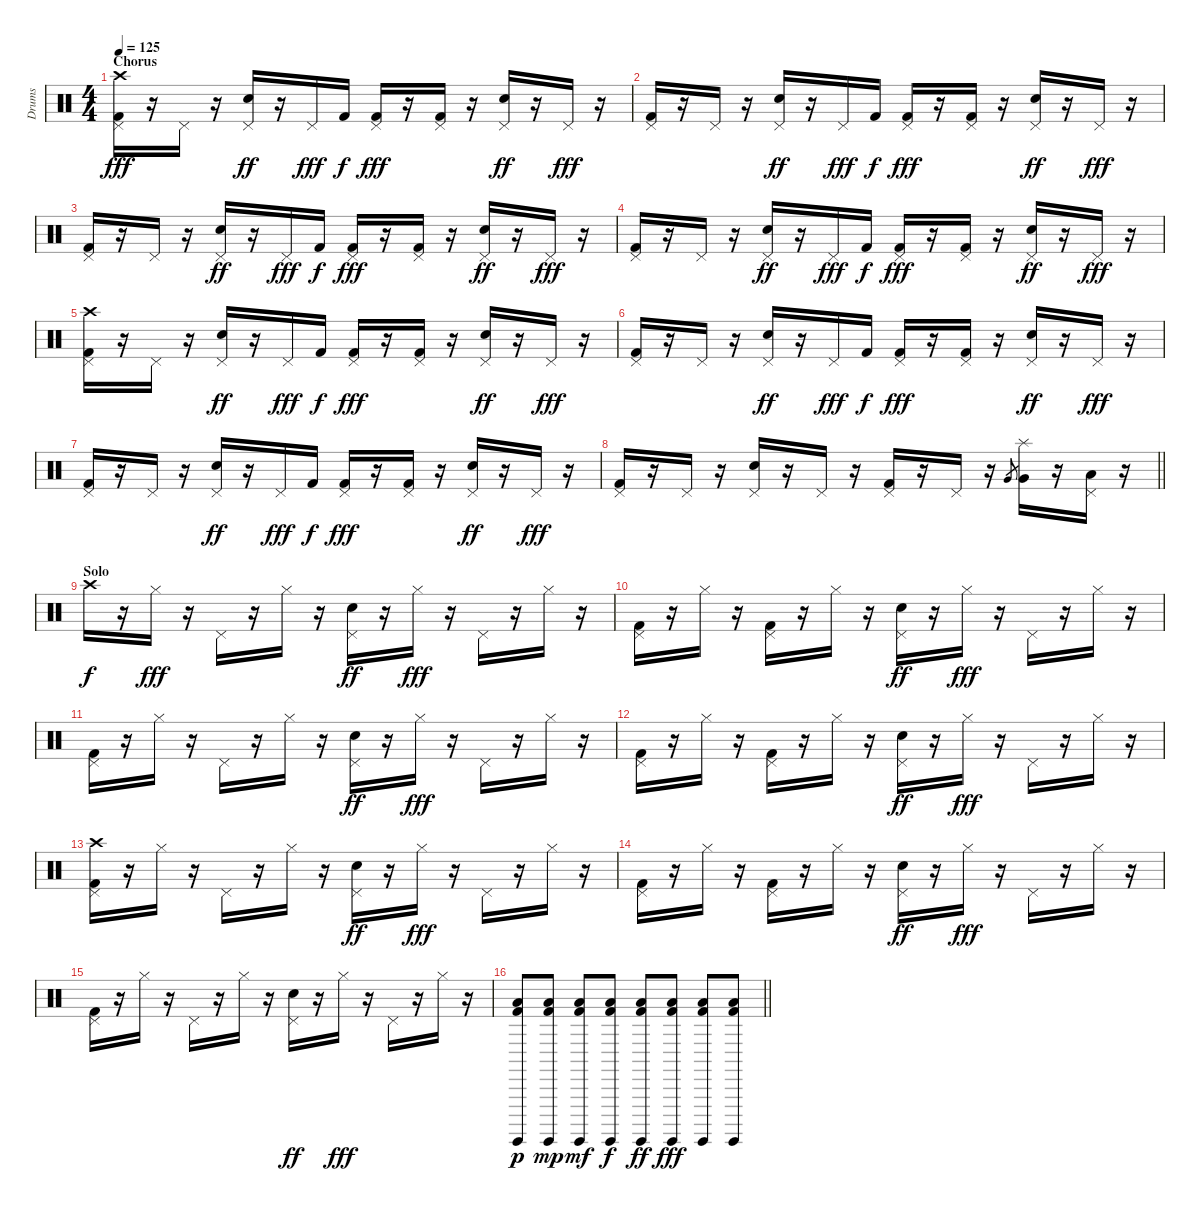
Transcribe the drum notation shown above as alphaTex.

\track ("Drums " "Drums ") {instrument percussion}
\staff {score}
\articulation defaults
\ts (4 4)
\section ("" "Chorus ")
\tempo 125
\clef neutral
\ks c
("Crash high (hit)" "Pedal Hi-Hat (hit)" "Kick (hit) 2").16{dy fff} r.16 "Pedal Hi-Hat (hit)".16 r.16 ("Pedal Hi-Hat (hit)" "Electric Snare (hit)").16{dy ff} r.16 "Pedal Hi-Hat (hit)".16{dy fff} "Kick (hit) 2".16{dy f} ("Pedal Hi-Hat (hit)" "Kick (hit) 2").16{dy fff} r.16 ("Pedal Hi-Hat (hit)" "Kick (hit) 2").16 r.16 ("Pedal Hi-Hat (hit)" "Electric Snare (hit)").16{dy ff} r.16 "Pedal Hi-Hat (hit)".16{dy fff} r.16 |
("Pedal Hi-Hat (hit)" "Kick (hit) 2").16 r.16 "Pedal Hi-Hat (hit)".16 r.16 ("Pedal Hi-Hat (hit)" "Electric Snare (hit)").16{dy ff} r.16 "Pedal Hi-Hat (hit)".16{dy fff} "Kick (hit) 2".16{dy f} ("Pedal Hi-Hat (hit)" "Kick (hit) 2").16{dy fff} r.16 ("Pedal Hi-Hat (hit)" "Kick (hit) 2").16 r.16 ("Pedal Hi-Hat (hit)" "Electric Snare (hit)").16{dy ff} r.16 "Pedal Hi-Hat (hit)".16{dy fff} r.16 |
("Pedal Hi-Hat (hit)" "Kick (hit) 2").16 r.16 "Pedal Hi-Hat (hit)".16 r.16 ("Pedal Hi-Hat (hit)" "Electric Snare (hit)").16{dy ff} r.16 "Pedal Hi-Hat (hit)".16{dy fff} "Kick (hit) 2".16{dy f} ("Pedal Hi-Hat (hit)" "Kick (hit) 2").16{dy fff} r.16 ("Pedal Hi-Hat (hit)" "Kick (hit) 2").16 r.16 ("Pedal Hi-Hat (hit)" "Electric Snare (hit)").16{dy ff} r.16 "Pedal Hi-Hat (hit)".16{dy fff} r.16 |
("Pedal Hi-Hat (hit)" "Kick (hit) 2").16 r.16 "Pedal Hi-Hat (hit)".16 r.16 ("Pedal Hi-Hat (hit)" "Electric Snare (hit)").16{dy ff} r.16 "Pedal Hi-Hat (hit)".16{dy fff} "Kick (hit) 2".16{dy f} ("Pedal Hi-Hat (hit)" "Kick (hit) 2").16{dy fff} r.16 ("Pedal Hi-Hat (hit)" "Kick (hit) 2").16 r.16 ("Pedal Hi-Hat (hit)" "Electric Snare (hit)").16{dy ff} r.16 "Pedal Hi-Hat (hit)".16{dy fff} r.16 |
("Crash high (hit)" "Pedal Hi-Hat (hit)" "Kick (hit) 2").16 r.16 "Pedal Hi-Hat (hit)".16 r.16 ("Pedal Hi-Hat (hit)" "Electric Snare (hit)").16{dy ff} r.16 "Pedal Hi-Hat (hit)".16{dy fff} "Kick (hit) 2".16{dy f} ("Pedal Hi-Hat (hit)" "Kick (hit) 2").16{dy fff} r.16 ("Pedal Hi-Hat (hit)" "Kick (hit) 2").16 r.16 ("Pedal Hi-Hat (hit)" "Electric Snare (hit)").16{dy ff} r.16 "Pedal Hi-Hat (hit)".16{dy fff} r.16 |
("Pedal Hi-Hat (hit)" "Kick (hit) 2").16 r.16 "Pedal Hi-Hat (hit)".16 r.16 ("Pedal Hi-Hat (hit)" "Electric Snare (hit)").16{dy ff} r.16 "Pedal Hi-Hat (hit)".16{dy fff} "Kick (hit) 2".16{dy f} ("Pedal Hi-Hat (hit)" "Kick (hit) 2").16{dy fff} r.16 ("Pedal Hi-Hat (hit)" "Kick (hit) 2").16 r.16 ("Pedal Hi-Hat (hit)" "Electric Snare (hit)").16{dy ff} r.16 "Pedal Hi-Hat (hit)".16{dy fff} r.16 |
("Pedal Hi-Hat (hit)" "Kick (hit) 2").16 r.16 "Pedal Hi-Hat (hit)".16 r.16 ("Pedal Hi-Hat (hit)" "Electric Snare (hit)").16{dy ff} r.16 "Pedal Hi-Hat (hit)".16{dy fff} "Kick (hit) 2".16{dy f} ("Pedal Hi-Hat (hit)" "Kick (hit) 2").16{dy fff} r.16 ("Pedal Hi-Hat (hit)" "Kick (hit) 2").16 r.16 ("Pedal Hi-Hat (hit)" "Electric Snare (hit)").16{dy ff} r.16 "Pedal Hi-Hat (hit)".16{dy fff} r.16 |
\barLineRight lightlight
("Pedal Hi-Hat (hit)" "Kick (hit) 2").16 r.16 "Pedal Hi-Hat (hit)".16 r.16 ("Pedal Hi-Hat (hit)" "Electric Snare (hit)").16 r.16 "Pedal Hi-Hat (hit)".16 r.16 ("Pedal Hi-Hat (hit)" "Kick (hit) 2").16 r.16 "Pedal Hi-Hat (hit)".16 r.16 "Very Low Tom (hit)".8{gr} ("Splash (hit)" "Very Low Tom (hit)").16 r.16 ("Pedal Hi-Hat (hit)" "Low Floor Tom (hit)").16 r.16 |
\section ("" "Solo")
"Crash high (hit)".16{dy f} r.16 "Hi-Hat (closed)".16{dy fff} r.16 "Pedal Hi-Hat (hit)".16 r.16 "Hi-Hat (closed)".16 r.16 ("Pedal Hi-Hat (hit)" "Electric Snare (hit)").16{dy ff} r.16 "Hi-Hat (closed)".16{dy fff} r.16 "Pedal Hi-Hat (hit)".16 r.16 "Hi-Hat (closed)".16 r.16 |
("Pedal Hi-Hat (hit)" "Kick (hit) 2").16 r.16 "Hi-Hat (closed)".16 r.16 ("Pedal Hi-Hat (hit)" "Kick (hit) 2").16 r.16 "Hi-Hat (closed)".16 r.16 ("Pedal Hi-Hat (hit)" "Electric Snare (hit)").16{dy ff} r.16 "Hi-Hat (closed)".16{dy fff} r.16 "Pedal Hi-Hat (hit)".16 r.16 "Hi-Hat (closed)".16 r.16 |
("Pedal Hi-Hat (hit)" "Kick (hit) 2").16 r.16 "Hi-Hat (closed)".16 r.16 "Pedal Hi-Hat (hit)".16 r.16 "Hi-Hat (closed)".16 r.16 ("Pedal Hi-Hat (hit)" "Electric Snare (hit)").16{dy ff} r.16 "Hi-Hat (closed)".16{dy fff} r.16 "Pedal Hi-Hat (hit)".16 r.16 "Hi-Hat (closed)".16 r.16 |
("Pedal Hi-Hat (hit)" "Kick (hit) 2").16 r.16 "Hi-Hat (closed)".16 r.16 ("Pedal Hi-Hat (hit)" "Kick (hit) 2").16 r.16 "Hi-Hat (closed)".16 r.16 ("Pedal Hi-Hat (hit)" "Electric Snare (hit)").16{dy ff} r.16 "Hi-Hat (closed)".16{dy fff} r.16 "Pedal Hi-Hat (hit)".16 r.16 "Hi-Hat (closed)".16 r.16 |
("Crash high (hit)" "Pedal Hi-Hat (hit)" "Kick (hit) 2").16 r.16 "Hi-Hat (closed)".16 r.16 "Pedal Hi-Hat (hit)".16 r.16 "Hi-Hat (closed)".16 r.16 ("Pedal Hi-Hat (hit)" "Electric Snare (hit)").16{dy ff} r.16 "Hi-Hat (closed)".16{dy fff} r.16 "Pedal Hi-Hat (hit)".16 r.16 "Hi-Hat (closed)".16 r.16 |
("Pedal Hi-Hat (hit)" "Kick (hit) 2").16 r.16 "Hi-Hat (closed)".16 r.16 ("Pedal Hi-Hat (hit)" "Kick (hit) 2").16 r.16 "Hi-Hat (closed)".16 r.16 ("Pedal Hi-Hat (hit)" "Electric Snare (hit)").16{dy ff} r.16 "Hi-Hat (closed)".16{dy fff} r.16 "Pedal Hi-Hat (hit)".16 r.16 "Hi-Hat (closed)".16 r.16 |
("Pedal Hi-Hat (hit)" "Kick (hit) 2").16 r.16 "Hi-Hat (closed)".16 r.16 "Pedal Hi-Hat (hit)".16 r.16 "Hi-Hat (closed)".16 r.16 ("Pedal Hi-Hat (hit)" "Electric Snare (hit)").16{dy ff} r.16 "Hi-Hat (closed)".16{dy fff} r.16 "Pedal Hi-Hat (hit)".16 r.16 "Hi-Hat (closed)".16 r.16 |
\barLineRight lightlight
("Low Floor Tom (hit)" "Surdo (hit)" "Kick (hit) 2").8{dy p} ("Low Floor Tom (hit)" "Surdo (hit)" "Kick (hit) 2").8{dy mp} ("Low Floor Tom (hit)" "Surdo (hit)" "Kick (hit) 2").8{dy mf} ("Low Floor Tom (hit)" "Surdo (hit)" "Kick (hit) 2").8{dy f} ("Low Floor Tom (hit)" "Surdo (hit)" "Kick (hit) 2").8{dy ff} ("Low Floor Tom (hit)" "Surdo (hit)" "Kick (hit) 2").8{dy fff} ("Low Floor Tom (hit)" "Surdo (hit)" "Kick (hit) 2").8 ("Low Floor Tom (hit)" "Surdo (hit)" "Kick (hit) 2").8
